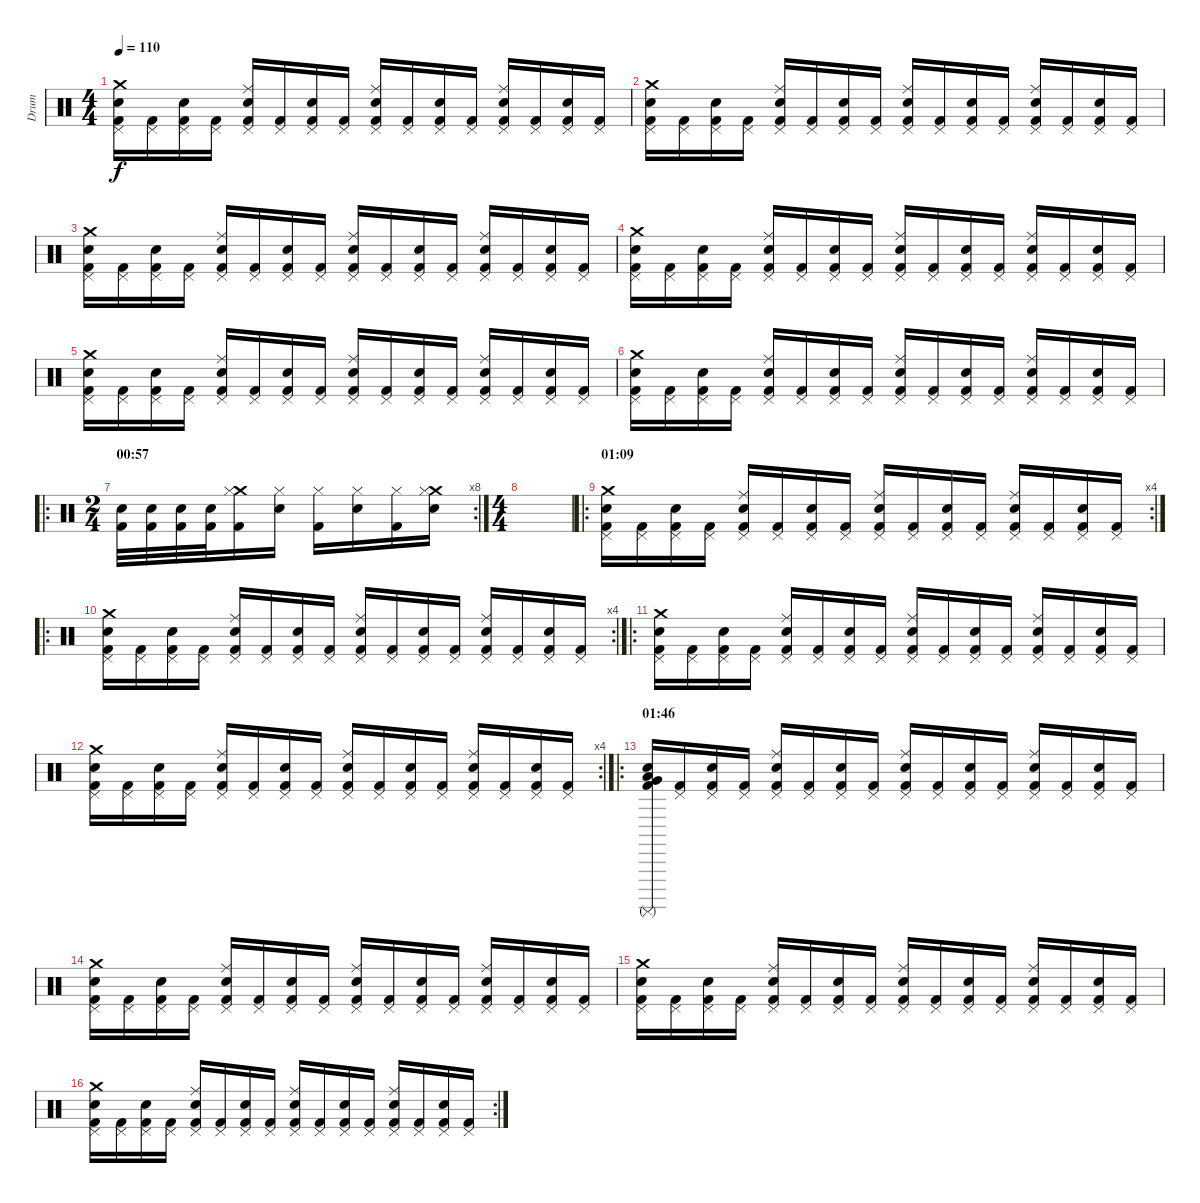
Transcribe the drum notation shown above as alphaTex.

\track ("Drum" "Drum") {instrument percussion}
\staff {score}
\articulation defaults
\ts (4 4)
\tempo 110
\clef neutral
\ks c
("Crash medium (hit)" "Pedal Hi-Hat (hit)" "Snare (hit) 2" "Kick (hit) 2").16{dy f} ("Pedal Hi-Hat (hit)" "Kick (hit) 2").16 ("Pedal Hi-Hat (hit)" "Snare (hit) 2" "Kick (hit) 2").16 ("Pedal Hi-Hat (hit)" "Kick (hit) 2").16 ("Ride (middle)" "Pedal Hi-Hat (hit)" "Snare (hit) 2" "Kick (hit) 2").16 ("Pedal Hi-Hat (hit)" "Kick (hit) 2").16 ("Pedal Hi-Hat (hit)" "Snare (hit) 2" "Kick (hit) 2").16 ("Pedal Hi-Hat (hit)" "Kick (hit) 2").16 ("Ride (middle)" "Pedal Hi-Hat (hit)" "Snare (hit) 2" "Kick (hit) 2").16 ("Pedal Hi-Hat (hit)" "Kick (hit) 2").16 ("Pedal Hi-Hat (hit)" "Snare (hit) 2" "Kick (hit) 2").16 ("Pedal Hi-Hat (hit)" "Kick (hit) 2").16 ("Ride (middle)" "Pedal Hi-Hat (hit)" "Snare (hit) 2" "Kick (hit) 2").16 ("Pedal Hi-Hat (hit)" "Kick (hit) 2").16 ("Pedal Hi-Hat (hit)" "Snare (hit) 2" "Kick (hit) 2").16 ("Pedal Hi-Hat (hit)" "Kick (hit) 2").16 |
("Crash medium (hit)" "Pedal Hi-Hat (hit)" "Snare (hit) 2" "Kick (hit) 2").16 ("Pedal Hi-Hat (hit)" "Kick (hit) 2").16 ("Pedal Hi-Hat (hit)" "Snare (hit) 2" "Kick (hit) 2").16 ("Pedal Hi-Hat (hit)" "Kick (hit) 2").16 ("Ride (middle)" "Pedal Hi-Hat (hit)" "Snare (hit) 2" "Kick (hit) 2").16 ("Pedal Hi-Hat (hit)" "Kick (hit) 2").16 ("Pedal Hi-Hat (hit)" "Snare (hit) 2" "Kick (hit) 2").16 ("Pedal Hi-Hat (hit)" "Kick (hit) 2").16 ("Ride (middle)" "Pedal Hi-Hat (hit)" "Snare (hit) 2" "Kick (hit) 2").16 ("Pedal Hi-Hat (hit)" "Kick (hit) 2").16 ("Pedal Hi-Hat (hit)" "Snare (hit) 2" "Kick (hit) 2").16 ("Pedal Hi-Hat (hit)" "Kick (hit) 2").16 ("Ride (middle)" "Pedal Hi-Hat (hit)" "Snare (hit) 2" "Kick (hit) 2").16 ("Pedal Hi-Hat (hit)" "Kick (hit) 2").16 ("Pedal Hi-Hat (hit)" "Snare (hit) 2" "Kick (hit) 2").16 ("Pedal Hi-Hat (hit)" "Kick (hit) 2").16 |
("Crash medium (hit)" "Pedal Hi-Hat (hit)" "Snare (hit) 2" "Kick (hit) 2").16 ("Pedal Hi-Hat (hit)" "Kick (hit) 2").16 ("Pedal Hi-Hat (hit)" "Snare (hit) 2" "Kick (hit) 2").16 ("Pedal Hi-Hat (hit)" "Kick (hit) 2").16 ("Ride (middle)" "Pedal Hi-Hat (hit)" "Snare (hit) 2" "Kick (hit) 2").16 ("Pedal Hi-Hat (hit)" "Kick (hit) 2").16 ("Pedal Hi-Hat (hit)" "Snare (hit) 2" "Kick (hit) 2").16 ("Pedal Hi-Hat (hit)" "Kick (hit) 2").16 ("Ride (middle)" "Pedal Hi-Hat (hit)" "Snare (hit) 2" "Kick (hit) 2").16 ("Pedal Hi-Hat (hit)" "Kick (hit) 2").16 ("Pedal Hi-Hat (hit)" "Snare (hit) 2" "Kick (hit) 2").16 ("Pedal Hi-Hat (hit)" "Kick (hit) 2").16 ("Ride (middle)" "Pedal Hi-Hat (hit)" "Snare (hit) 2" "Kick (hit) 2").16 ("Pedal Hi-Hat (hit)" "Kick (hit) 2").16 ("Pedal Hi-Hat (hit)" "Snare (hit) 2" "Kick (hit) 2").16 ("Pedal Hi-Hat (hit)" "Kick (hit) 2").16 |
("Crash medium (hit)" "Pedal Hi-Hat (hit)" "Snare (hit) 2" "Kick (hit) 2").16 ("Pedal Hi-Hat (hit)" "Kick (hit) 2").16 ("Pedal Hi-Hat (hit)" "Snare (hit) 2" "Kick (hit) 2").16 ("Pedal Hi-Hat (hit)" "Kick (hit) 2").16 ("Ride (middle)" "Pedal Hi-Hat (hit)" "Snare (hit) 2" "Kick (hit) 2").16 ("Pedal Hi-Hat (hit)" "Kick (hit) 2").16 ("Pedal Hi-Hat (hit)" "Snare (hit) 2" "Kick (hit) 2").16 ("Pedal Hi-Hat (hit)" "Kick (hit) 2").16 ("Ride (middle)" "Pedal Hi-Hat (hit)" "Snare (hit) 2" "Kick (hit) 2").16 ("Pedal Hi-Hat (hit)" "Kick (hit) 2").16 ("Pedal Hi-Hat (hit)" "Snare (hit) 2" "Kick (hit) 2").16 ("Pedal Hi-Hat (hit)" "Kick (hit) 2").16 ("Ride (middle)" "Pedal Hi-Hat (hit)" "Snare (hit) 2" "Kick (hit) 2").16 ("Pedal Hi-Hat (hit)" "Kick (hit) 2").16 ("Pedal Hi-Hat (hit)" "Snare (hit) 2" "Kick (hit) 2").16 ("Pedal Hi-Hat (hit)" "Kick (hit) 2").16 |
("Crash medium (hit)" "Pedal Hi-Hat (hit)" "Snare (hit) 2" "Kick (hit) 2").16 ("Pedal Hi-Hat (hit)" "Kick (hit) 2").16 ("Pedal Hi-Hat (hit)" "Snare (hit) 2" "Kick (hit) 2").16 ("Pedal Hi-Hat (hit)" "Kick (hit) 2").16 ("Ride (middle)" "Pedal Hi-Hat (hit)" "Snare (hit) 2" "Kick (hit) 2").16 ("Pedal Hi-Hat (hit)" "Kick (hit) 2").16 ("Pedal Hi-Hat (hit)" "Snare (hit) 2" "Kick (hit) 2").16 ("Pedal Hi-Hat (hit)" "Kick (hit) 2").16 ("Ride (middle)" "Pedal Hi-Hat (hit)" "Snare (hit) 2" "Kick (hit) 2").16 ("Pedal Hi-Hat (hit)" "Kick (hit) 2").16 ("Pedal Hi-Hat (hit)" "Snare (hit) 2" "Kick (hit) 2").16 ("Pedal Hi-Hat (hit)" "Kick (hit) 2").16 ("Ride (middle)" "Pedal Hi-Hat (hit)" "Snare (hit) 2" "Kick (hit) 2").16 ("Pedal Hi-Hat (hit)" "Kick (hit) 2").16 ("Pedal Hi-Hat (hit)" "Snare (hit) 2" "Kick (hit) 2").16 ("Pedal Hi-Hat (hit)" "Kick (hit) 2").16 |
("Crash medium (hit)" "Pedal Hi-Hat (hit)" "Snare (hit) 2" "Kick (hit) 2").16 ("Pedal Hi-Hat (hit)" "Kick (hit) 2").16 ("Pedal Hi-Hat (hit)" "Snare (hit) 2" "Kick (hit) 2").16 ("Pedal Hi-Hat (hit)" "Kick (hit) 2").16 ("Ride (middle)" "Pedal Hi-Hat (hit)" "Snare (hit) 2" "Kick (hit) 2").16 ("Pedal Hi-Hat (hit)" "Kick (hit) 2").16 ("Pedal Hi-Hat (hit)" "Snare (hit) 2" "Kick (hit) 2").16 ("Pedal Hi-Hat (hit)" "Kick (hit) 2").16 ("Ride (middle)" "Pedal Hi-Hat (hit)" "Snare (hit) 2" "Kick (hit) 2").16 ("Pedal Hi-Hat (hit)" "Kick (hit) 2").16 ("Pedal Hi-Hat (hit)" "Snare (hit) 2" "Kick (hit) 2").16 ("Pedal Hi-Hat (hit)" "Kick (hit) 2").16 ("Ride (middle)" "Pedal Hi-Hat (hit)" "Snare (hit) 2" "Kick (hit) 2").16 ("Pedal Hi-Hat (hit)" "Kick (hit) 2").16 ("Pedal Hi-Hat (hit)" "Snare (hit) 2" "Kick (hit) 2").16 ("Pedal Hi-Hat (hit)" "Kick (hit) 2").16 |
\ro
\rc 8
\ts (2 4)
\section ("" "00:57")
("Kick (hit) 2" "Snare (hit) 2").32 ("Kick (hit) 2" "Snare (hit) 2").32 ("Kick (hit) 2" "Snare (hit) 2").32 ("Kick (hit) 2" "Snare (hit) 2").32 ("Kick (hit) 2" "Crash medium (hit)" "Hi-Hat (closed)").16 ("Snare (hit) 2" "Hi-Hat (closed)").16 ("Kick (hit) 2" "Hi-Hat (closed)").16 ("Snare (hit) 2" "Hi-Hat (closed)").16 ("Kick (hit) 2" "Hi-Hat (closed)").16 ("Crash medium (hit)" "Snare (hit) 2" "Hi-Hat (closed)").16 |
\ts (4 4)
|
\ro
\rc 4
\section ("" "01:09")
("Crash medium (hit)" "Pedal Hi-Hat (hit)" "Snare (hit) 2" "Kick (hit) 2").16 ("Pedal Hi-Hat (hit)" "Kick (hit) 2").16 ("Pedal Hi-Hat (hit)" "Snare (hit) 2" "Kick (hit) 2").16 ("Pedal Hi-Hat (hit)" "Kick (hit) 2").16 ("Ride (middle)" "Pedal Hi-Hat (hit)" "Snare (hit) 2" "Kick (hit) 2").16 ("Pedal Hi-Hat (hit)" "Kick (hit) 2").16 ("Pedal Hi-Hat (hit)" "Snare (hit) 2" "Kick (hit) 2").16 ("Pedal Hi-Hat (hit)" "Kick (hit) 2").16 ("Ride (middle)" "Pedal Hi-Hat (hit)" "Snare (hit) 2" "Kick (hit) 2").16 ("Pedal Hi-Hat (hit)" "Kick (hit) 2").16 ("Pedal Hi-Hat (hit)" "Snare (hit) 2" "Kick (hit) 2").16 ("Pedal Hi-Hat (hit)" "Kick (hit) 2").16 ("Ride (middle)" "Pedal Hi-Hat (hit)" "Snare (hit) 2" "Kick (hit) 2").16 ("Pedal Hi-Hat (hit)" "Kick (hit) 2").16 ("Pedal Hi-Hat (hit)" "Snare (hit) 2" "Kick (hit) 2").16 ("Pedal Hi-Hat (hit)" "Kick (hit) 2").16 |
\ro
\rc 4
("Crash medium (hit)" "Pedal Hi-Hat (hit)" "Snare (hit) 2" "Kick (hit) 2").16 ("Pedal Hi-Hat (hit)" "Kick (hit) 2").16 ("Pedal Hi-Hat (hit)" "Snare (hit) 2" "Kick (hit) 2").16 ("Pedal Hi-Hat (hit)" "Kick (hit) 2").16 ("Ride (middle)" "Pedal Hi-Hat (hit)" "Snare (hit) 2" "Kick (hit) 2").16 ("Pedal Hi-Hat (hit)" "Kick (hit) 2").16 ("Pedal Hi-Hat (hit)" "Snare (hit) 2" "Kick (hit) 2").16 ("Pedal Hi-Hat (hit)" "Kick (hit) 2").16 ("Ride (middle)" "Pedal Hi-Hat (hit)" "Snare (hit) 2" "Kick (hit) 2").16 ("Pedal Hi-Hat (hit)" "Kick (hit) 2").16 ("Pedal Hi-Hat (hit)" "Snare (hit) 2" "Kick (hit) 2").16 ("Pedal Hi-Hat (hit)" "Kick (hit) 2").16 ("Ride (middle)" "Pedal Hi-Hat (hit)" "Snare (hit) 2" "Kick (hit) 2").16 ("Pedal Hi-Hat (hit)" "Kick (hit) 2").16 ("Pedal Hi-Hat (hit)" "Snare (hit) 2" "Kick (hit) 2").16 ("Pedal Hi-Hat (hit)" "Kick (hit) 2").16 |
\ro
("Crash medium (hit)" "Pedal Hi-Hat (hit)" "Snare (hit) 2" "Kick (hit) 2").16 ("Pedal Hi-Hat (hit)" "Kick (hit) 2").16 ("Pedal Hi-Hat (hit)" "Snare (hit) 2" "Kick (hit) 2").16 ("Pedal Hi-Hat (hit)" "Kick (hit) 2").16 ("Ride (middle)" "Pedal Hi-Hat (hit)" "Snare (hit) 2" "Kick (hit) 2").16 ("Pedal Hi-Hat (hit)" "Kick (hit) 2").16 ("Pedal Hi-Hat (hit)" "Snare (hit) 2" "Kick (hit) 2").16 ("Pedal Hi-Hat (hit)" "Kick (hit) 2").16 ("Ride (middle)" "Pedal Hi-Hat (hit)" "Snare (hit) 2" "Kick (hit) 2").16 ("Pedal Hi-Hat (hit)" "Kick (hit) 2").16 ("Pedal Hi-Hat (hit)" "Snare (hit) 2" "Kick (hit) 2").16 ("Pedal Hi-Hat (hit)" "Kick (hit) 2").16 ("Ride (middle)" "Pedal Hi-Hat (hit)" "Snare (hit) 2" "Kick (hit) 2").16 ("Pedal Hi-Hat (hit)" "Kick (hit) 2").16 ("Pedal Hi-Hat (hit)" "Snare (hit) 2" "Kick (hit) 2").16 ("Pedal Hi-Hat (hit)" "Kick (hit) 2").16 |
\rc 4
("Crash medium (hit)" "Pedal Hi-Hat (hit)" "Snare (hit) 2" "Kick (hit) 2").16 ("Pedal Hi-Hat (hit)" "Kick (hit) 2").16 ("Pedal Hi-Hat (hit)" "Snare (hit) 2" "Kick (hit) 2").16 ("Pedal Hi-Hat (hit)" "Kick (hit) 2").16 ("Ride (middle)" "Pedal Hi-Hat (hit)" "Snare (hit) 2" "Kick (hit) 2").16 ("Pedal Hi-Hat (hit)" "Kick (hit) 2").16 ("Pedal Hi-Hat (hit)" "Snare (hit) 2" "Kick (hit) 2").16 ("Pedal Hi-Hat (hit)" "Kick (hit) 2").16 ("Ride (middle)" "Pedal Hi-Hat (hit)" "Snare (hit) 2" "Kick (hit) 2").16 ("Pedal Hi-Hat (hit)" "Kick (hit) 2").16 ("Pedal Hi-Hat (hit)" "Snare (hit) 2" "Kick (hit) 2").16 ("Pedal Hi-Hat (hit)" "Kick (hit) 2").16 ("Ride (middle)" "Pedal Hi-Hat (hit)" "Snare (hit) 2" "Kick (hit) 2").16 ("Pedal Hi-Hat (hit)" "Kick (hit) 2").16 ("Pedal Hi-Hat (hit)" "Snare (hit) 2" "Kick (hit) 2").16 ("Pedal Hi-Hat (hit)" "Kick (hit) 2").16 |
\ro
\section ("" "01:46")
("Very Low Tom (hit)" "Low Floor Tom (hit)" "Surdo (mute)" "Snare (hit) 2" "Kick (hit) 2").16 ("Pedal Hi-Hat (hit)" "Kick (hit) 2").16 ("Pedal Hi-Hat (hit)" "Snare (hit) 2" "Kick (hit) 2").16 ("Pedal Hi-Hat (hit)" "Kick (hit) 2").16 ("Ride (middle)" "Pedal Hi-Hat (hit)" "Snare (hit) 2" "Kick (hit) 2").16 ("Pedal Hi-Hat (hit)" "Kick (hit) 2").16 ("Pedal Hi-Hat (hit)" "Snare (hit) 2" "Kick (hit) 2").16 ("Pedal Hi-Hat (hit)" "Kick (hit) 2").16 ("Ride (middle)" "Pedal Hi-Hat (hit)" "Snare (hit) 2" "Kick (hit) 2").16 ("Pedal Hi-Hat (hit)" "Kick (hit) 2").16 ("Pedal Hi-Hat (hit)" "Snare (hit) 2" "Kick (hit) 2").16 ("Pedal Hi-Hat (hit)" "Kick (hit) 2").16 ("Ride (middle)" "Pedal Hi-Hat (hit)" "Snare (hit) 2" "Kick (hit) 2").16 ("Pedal Hi-Hat (hit)" "Kick (hit) 2").16 ("Pedal Hi-Hat (hit)" "Snare (hit) 2" "Kick (hit) 2").16 ("Pedal Hi-Hat (hit)" "Kick (hit) 2").16 |
("Crash medium (hit)" "Pedal Hi-Hat (hit)" "Snare (hit) 2" "Kick (hit) 2").16 ("Pedal Hi-Hat (hit)" "Kick (hit) 2").16 ("Pedal Hi-Hat (hit)" "Snare (hit) 2" "Kick (hit) 2").16 ("Pedal Hi-Hat (hit)" "Kick (hit) 2").16 ("Ride (middle)" "Pedal Hi-Hat (hit)" "Snare (hit) 2" "Kick (hit) 2").16 ("Pedal Hi-Hat (hit)" "Kick (hit) 2").16 ("Pedal Hi-Hat (hit)" "Snare (hit) 2" "Kick (hit) 2").16 ("Pedal Hi-Hat (hit)" "Kick (hit) 2").16 ("Ride (middle)" "Pedal Hi-Hat (hit)" "Snare (hit) 2" "Kick (hit) 2").16 ("Pedal Hi-Hat (hit)" "Kick (hit) 2").16 ("Pedal Hi-Hat (hit)" "Snare (hit) 2" "Kick (hit) 2").16 ("Pedal Hi-Hat (hit)" "Kick (hit) 2").16 ("Ride (middle)" "Pedal Hi-Hat (hit)" "Snare (hit) 2" "Kick (hit) 2").16 ("Pedal Hi-Hat (hit)" "Kick (hit) 2").16 ("Pedal Hi-Hat (hit)" "Snare (hit) 2" "Kick (hit) 2").16 ("Pedal Hi-Hat (hit)" "Kick (hit) 2").16 |
("Crash medium (hit)" "Pedal Hi-Hat (hit)" "Snare (hit) 2" "Kick (hit) 2").16 ("Pedal Hi-Hat (hit)" "Kick (hit) 2").16 ("Pedal Hi-Hat (hit)" "Snare (hit) 2" "Kick (hit) 2").16 ("Pedal Hi-Hat (hit)" "Kick (hit) 2").16 ("Ride (middle)" "Pedal Hi-Hat (hit)" "Snare (hit) 2" "Kick (hit) 2").16 ("Pedal Hi-Hat (hit)" "Kick (hit) 2").16 ("Pedal Hi-Hat (hit)" "Snare (hit) 2" "Kick (hit) 2").16 ("Pedal Hi-Hat (hit)" "Kick (hit) 2").16 ("Ride (middle)" "Pedal Hi-Hat (hit)" "Snare (hit) 2" "Kick (hit) 2").16 ("Pedal Hi-Hat (hit)" "Kick (hit) 2").16 ("Pedal Hi-Hat (hit)" "Snare (hit) 2" "Kick (hit) 2").16 ("Pedal Hi-Hat (hit)" "Kick (hit) 2").16 ("Ride (middle)" "Pedal Hi-Hat (hit)" "Snare (hit) 2" "Kick (hit) 2").16 ("Pedal Hi-Hat (hit)" "Kick (hit) 2").16 ("Pedal Hi-Hat (hit)" "Snare (hit) 2" "Kick (hit) 2").16 ("Pedal Hi-Hat (hit)" "Kick (hit) 2").16 |
\rc 2
("Crash medium (hit)" "Pedal Hi-Hat (hit)" "Snare (hit) 2" "Kick (hit) 2").16 ("Pedal Hi-Hat (hit)" "Kick (hit) 2").16 ("Pedal Hi-Hat (hit)" "Snare (hit) 2" "Kick (hit) 2").16 ("Pedal Hi-Hat (hit)" "Kick (hit) 2").16 ("Ride (middle)" "Pedal Hi-Hat (hit)" "Snare (hit) 2" "Kick (hit) 2").16 ("Pedal Hi-Hat (hit)" "Kick (hit) 2").16 ("Pedal Hi-Hat (hit)" "Snare (hit) 2" "Kick (hit) 2").16 ("Pedal Hi-Hat (hit)" "Kick (hit) 2").16 ("Ride (middle)" "Pedal Hi-Hat (hit)" "Snare (hit) 2" "Kick (hit) 2").16 ("Pedal Hi-Hat (hit)" "Kick (hit) 2").16 ("Pedal Hi-Hat (hit)" "Snare (hit) 2" "Kick (hit) 2").16 ("Pedal Hi-Hat (hit)" "Kick (hit) 2").16 ("Ride (middle)" "Pedal Hi-Hat (hit)" "Snare (hit) 2" "Kick (hit) 2").16 ("Pedal Hi-Hat (hit)" "Kick (hit) 2").16 ("Pedal Hi-Hat (hit)" "Snare (hit) 2" "Kick (hit) 2").16 ("Pedal Hi-Hat (hit)" "Kick (hit) 2").16
